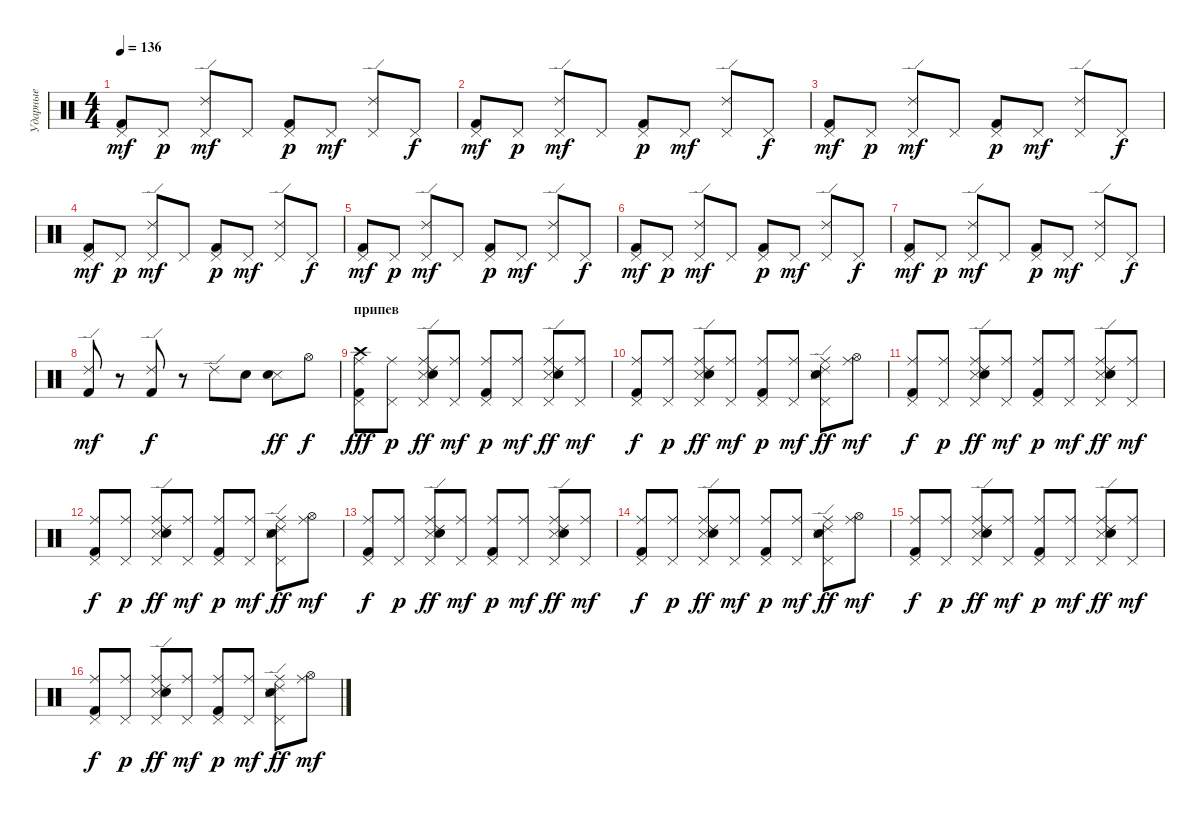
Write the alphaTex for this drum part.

\track ("Ударные" "Ударные") {instrument percussion}
\staff {score}
\articulation defaults
\ts (4 4)
\tempo 136
\clef neutral
\ks c
("Kick (hit) 2" "Pedal Hi-Hat (hit)").8{dy mf} "Pedal Hi-Hat (hit)".8{dy p} ("Ride (edge) 2" "Pedal Hi-Hat (hit)").8{dy mf} "Pedal Hi-Hat (hit)".8 ("Kick (hit) 2" "Pedal Hi-Hat (hit)").8{dy p} "Pedal Hi-Hat (hit)".8{dy mf} ("Ride (edge) 2" "Pedal Hi-Hat (hit)").8 "Pedal Hi-Hat (hit)".8{dy f} |
("Kick (hit) 2" "Pedal Hi-Hat (hit)").8{dy mf} "Pedal Hi-Hat (hit)".8{dy p} ("Ride (edge) 2" "Pedal Hi-Hat (hit)").8{dy mf} "Pedal Hi-Hat (hit)".8 ("Kick (hit) 2" "Pedal Hi-Hat (hit)").8{dy p} "Pedal Hi-Hat (hit)".8{dy mf} ("Ride (edge) 2" "Pedal Hi-Hat (hit)").8 "Pedal Hi-Hat (hit)".8{dy f} |
("Kick (hit) 2" "Pedal Hi-Hat (hit)").8{dy mf} "Pedal Hi-Hat (hit)".8{dy p} ("Ride (edge) 2" "Pedal Hi-Hat (hit)").8{dy mf} "Pedal Hi-Hat (hit)".8 ("Kick (hit) 2" "Pedal Hi-Hat (hit)").8{dy p} "Pedal Hi-Hat (hit)".8{dy mf} ("Ride (edge) 2" "Pedal Hi-Hat (hit)").8 "Pedal Hi-Hat (hit)".8{dy f} |
("Kick (hit) 2" "Pedal Hi-Hat (hit)").8{dy mf} "Pedal Hi-Hat (hit)".8{dy p} ("Ride (edge) 2" "Pedal Hi-Hat (hit)").8{dy mf} "Pedal Hi-Hat (hit)".8 ("Kick (hit) 2" "Pedal Hi-Hat (hit)").8{dy p} "Pedal Hi-Hat (hit)".8{dy mf} ("Ride (edge) 2" "Pedal Hi-Hat (hit)").8 "Pedal Hi-Hat (hit)".8{dy f} |
("Kick (hit) 2" "Pedal Hi-Hat (hit)").8{dy mf} "Pedal Hi-Hat (hit)".8{dy p} ("Ride (edge) 2" "Pedal Hi-Hat (hit)").8{dy mf} "Pedal Hi-Hat (hit)".8 ("Kick (hit) 2" "Pedal Hi-Hat (hit)").8{dy p} "Pedal Hi-Hat (hit)".8{dy mf} ("Ride (edge) 2" "Pedal Hi-Hat (hit)").8 "Pedal Hi-Hat (hit)".8{dy f} |
("Kick (hit) 2" "Pedal Hi-Hat (hit)").8{dy mf} "Pedal Hi-Hat (hit)".8{dy p} ("Ride (edge) 2" "Pedal Hi-Hat (hit)").8{dy mf} "Pedal Hi-Hat (hit)".8 ("Kick (hit) 2" "Pedal Hi-Hat (hit)").8{dy p} "Pedal Hi-Hat (hit)".8{dy mf} ("Ride (edge) 2" "Pedal Hi-Hat (hit)").8 "Pedal Hi-Hat (hit)".8{dy f} |
("Kick (hit) 2" "Pedal Hi-Hat (hit)").8{dy mf} "Pedal Hi-Hat (hit)".8{dy p} ("Ride (edge) 2" "Pedal Hi-Hat (hit)").8{dy mf} "Pedal Hi-Hat (hit)".8 ("Kick (hit) 2" "Pedal Hi-Hat (hit)").8{dy p} "Pedal Hi-Hat (hit)".8{dy mf} ("Ride (edge) 2" "Pedal Hi-Hat (hit)").8 "Pedal Hi-Hat (hit)".8{dy f} |
("Kick (hit) 2" "Ride (edge) 2").8{dy mf} r.8 ("Kick (hit) 2" "Ride (edge) 2").8{dy f} r.8 "Ride (edge) 2".8 "Snare (hit) 2".8 ("Snare (side stick) 3" "Electric Snare (hit)").8{dy ff} "Hi-Hat (open)".8{dy f} |
\section ("" "припев")
("Kick (hit) 2" "Ride (middle)" "Pedal Hi-Hat (hit)" "Crash high (hit)").8{dy fff} ("Ride (middle)" "Pedal Hi-Hat (hit)").8{dy p} ("Ride (edge) 2" "Ride (middle)" "Pedal Hi-Hat (hit)" "Snare (side stick) 3" "Electric Snare (hit)").8{dy ff} ("Ride (middle)" "Pedal Hi-Hat (hit)").8{dy mf} ("Kick (hit) 2" "Ride (middle)" "Pedal Hi-Hat (hit)").8{dy p} ("Ride (middle)" "Pedal Hi-Hat (hit)").8{dy mf} ("Ride (edge) 2" "Ride (middle)" "Pedal Hi-Hat (hit)" "Snare (side stick) 3" "Electric Snare (hit)").8{dy ff} ("Ride (middle)" "Pedal Hi-Hat (hit)").8{dy mf} |
("Kick (hit) 2" "Ride (middle)" "Pedal Hi-Hat (hit)").8{dy f} ("Ride (middle)" "Pedal Hi-Hat (hit)").8{dy p} ("Ride (edge) 2" "Ride (middle)" "Pedal Hi-Hat (hit)" "Snare (side stick) 3" "Electric Snare (hit)").8{dy ff} ("Ride (middle)" "Pedal Hi-Hat (hit)").8{dy mf} ("Kick (hit) 2" "Ride (middle)" "Pedal Hi-Hat (hit)").8{dy p} ("Ride (middle)" "Pedal Hi-Hat (hit)").8{dy mf} ("Ride (edge) 2" "Ride (middle)" "Pedal Hi-Hat (hit)" "Snare (side stick) 3" "Electric Snare (hit)").8{dy ff} ("Ride (middle)" "Hi-Hat (open)").8{dy mf} |
("Kick (hit) 2" "Ride (middle)" "Pedal Hi-Hat (hit)").8{dy f} ("Ride (middle)" "Pedal Hi-Hat (hit)").8{dy p} ("Ride (edge) 2" "Ride (middle)" "Pedal Hi-Hat (hit)" "Snare (side stick) 3" "Electric Snare (hit)").8{dy ff} ("Ride (middle)" "Pedal Hi-Hat (hit)").8{dy mf} ("Kick (hit) 2" "Ride (middle)" "Pedal Hi-Hat (hit)").8{dy p} ("Ride (middle)" "Pedal Hi-Hat (hit)").8{dy mf} ("Ride (edge) 2" "Ride (middle)" "Pedal Hi-Hat (hit)" "Snare (side stick) 3" "Electric Snare (hit)").8{dy ff} ("Ride (middle)" "Pedal Hi-Hat (hit)").8{dy mf} |
("Kick (hit) 2" "Ride (middle)" "Pedal Hi-Hat (hit)").8{dy f} ("Ride (middle)" "Pedal Hi-Hat (hit)").8{dy p} ("Ride (edge) 2" "Ride (middle)" "Pedal Hi-Hat (hit)" "Snare (side stick) 3" "Electric Snare (hit)").8{dy ff} ("Ride (middle)" "Pedal Hi-Hat (hit)").8{dy mf} ("Kick (hit) 2" "Ride (middle)" "Pedal Hi-Hat (hit)").8{dy p} ("Ride (middle)" "Pedal Hi-Hat (hit)").8{dy mf} ("Ride (edge) 2" "Ride (middle)" "Pedal Hi-Hat (hit)" "Snare (side stick) 3" "Electric Snare (hit)").8{dy ff} ("Ride (middle)" "Hi-Hat (open)").8{dy mf} |
("Kick (hit) 2" "Ride (middle)" "Pedal Hi-Hat (hit)").8{dy f} ("Ride (middle)" "Pedal Hi-Hat (hit)").8{dy p} ("Ride (edge) 2" "Ride (middle)" "Pedal Hi-Hat (hit)" "Snare (side stick) 3" "Electric Snare (hit)").8{dy ff} ("Ride (middle)" "Pedal Hi-Hat (hit)").8{dy mf} ("Kick (hit) 2" "Ride (middle)" "Pedal Hi-Hat (hit)").8{dy p} ("Ride (middle)" "Pedal Hi-Hat (hit)").8{dy mf} ("Ride (edge) 2" "Ride (middle)" "Pedal Hi-Hat (hit)" "Snare (side stick) 3" "Electric Snare (hit)").8{dy ff} ("Ride (middle)" "Pedal Hi-Hat (hit)").8{dy mf} |
("Kick (hit) 2" "Ride (middle)" "Pedal Hi-Hat (hit)").8{dy f} ("Ride (middle)" "Pedal Hi-Hat (hit)").8{dy p} ("Ride (edge) 2" "Ride (middle)" "Pedal Hi-Hat (hit)" "Snare (side stick) 3" "Electric Snare (hit)").8{dy ff} ("Ride (middle)" "Pedal Hi-Hat (hit)").8{dy mf} ("Kick (hit) 2" "Ride (middle)" "Pedal Hi-Hat (hit)").8{dy p} ("Ride (middle)" "Pedal Hi-Hat (hit)").8{dy mf} ("Ride (edge) 2" "Ride (middle)" "Pedal Hi-Hat (hit)" "Snare (side stick) 3" "Electric Snare (hit)").8{dy ff} ("Ride (middle)" "Hi-Hat (open)").8{dy mf} |
("Kick (hit) 2" "Ride (middle)" "Pedal Hi-Hat (hit)").8{dy f} ("Ride (middle)" "Pedal Hi-Hat (hit)").8{dy p} ("Ride (edge) 2" "Ride (middle)" "Pedal Hi-Hat (hit)" "Snare (side stick) 3" "Electric Snare (hit)").8{dy ff} ("Ride (middle)" "Pedal Hi-Hat (hit)").8{dy mf} ("Kick (hit) 2" "Ride (middle)" "Pedal Hi-Hat (hit)").8{dy p} ("Ride (middle)" "Pedal Hi-Hat (hit)").8{dy mf} ("Ride (edge) 2" "Ride (middle)" "Pedal Hi-Hat (hit)" "Snare (side stick) 3" "Electric Snare (hit)").8{dy ff} ("Ride (middle)" "Pedal Hi-Hat (hit)").8{dy mf} |
("Kick (hit) 2" "Ride (middle)" "Pedal Hi-Hat (hit)").8{dy f} ("Ride (middle)" "Pedal Hi-Hat (hit)").8{dy p} ("Ride (edge) 2" "Ride (middle)" "Pedal Hi-Hat (hit)" "Snare (side stick) 3" "Electric Snare (hit)").8{dy ff} ("Ride (middle)" "Pedal Hi-Hat (hit)").8{dy mf} ("Kick (hit) 2" "Ride (middle)" "Pedal Hi-Hat (hit)").8{dy p} ("Ride (middle)" "Pedal Hi-Hat (hit)").8{dy mf} ("Ride (edge) 2" "Ride (middle)" "Pedal Hi-Hat (hit)" "Snare (side stick) 3" "Electric Snare (hit)").8{dy ff} ("Ride (middle)" "Hi-Hat (open)").8{dy mf}
